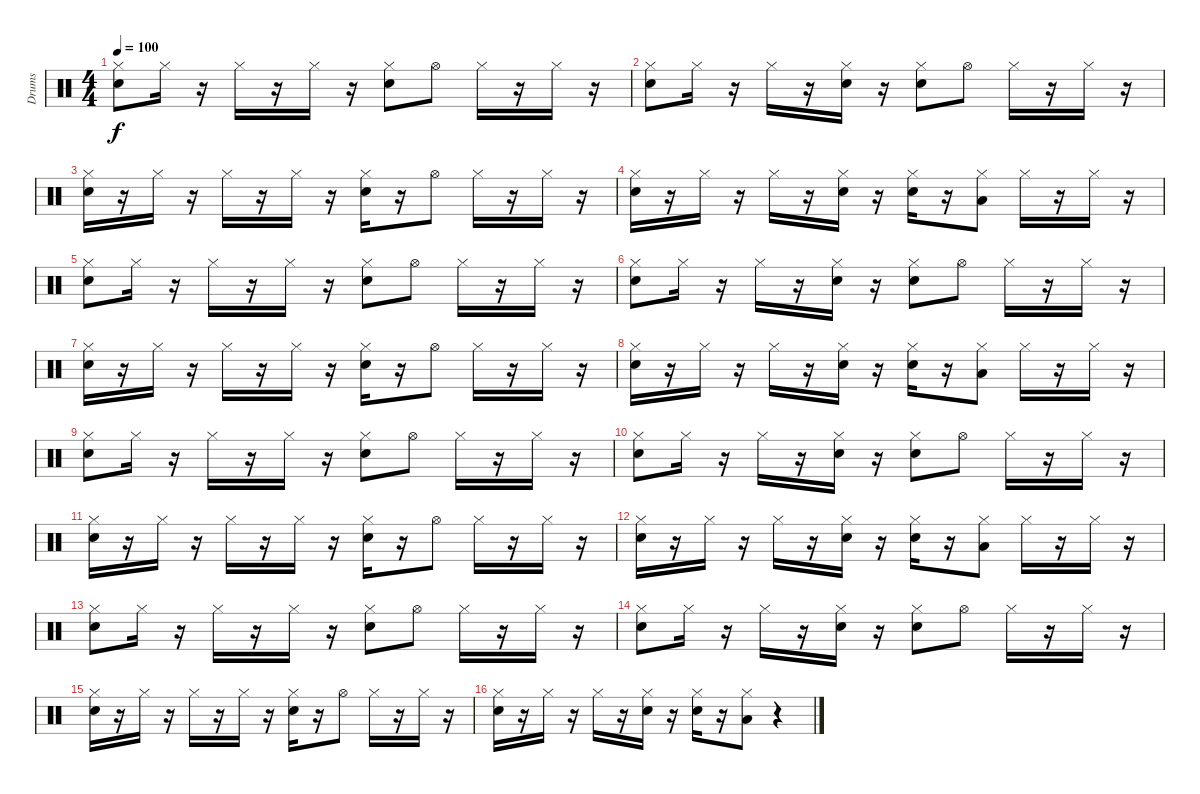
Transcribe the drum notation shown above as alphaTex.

\track ("Drums" "Drums") {instrument percussion}
\staff {score}
\articulation defaults
\ts (4 4)
\tempo 100
\clef neutral
\ks c
("Hi-Hat (closed)" "Snare (hit) 2").8{dy f} "Hi-Hat (closed)".16 r.16 "Hi-Hat (closed)".16 r.16 "Hi-Hat (closed)".16 r.16 ("Snare (hit) 2" "Hi-Hat (closed)").8 "Hi-Hat (open)".8 "Hi-Hat (closed)".16 r.16 "Hi-Hat (closed)".16 r.16 |
("Hi-Hat (closed)" "Snare (hit) 2").8 "Hi-Hat (closed)".16 r.16 "Hi-Hat (closed)".16 r.16 ("Hi-Hat (closed)" "Snare (hit) 2").16 r.16 ("Hi-Hat (closed)" "Snare (hit) 2").8 "Hi-Hat (open)".8 "Hi-Hat (closed)".16 r.16 "Hi-Hat (closed)".16 r.16 |
("Hi-Hat (closed)" "Snare (hit) 2").16 r.16 "Hi-Hat (closed)".16 r.16 "Hi-Hat (closed)".16 r.16 "Hi-Hat (closed)".16 r.16 ("Snare (hit) 2" "Hi-Hat (closed)").16 r.16 "Hi-Hat (open)".8 "Hi-Hat (closed)".16 r.16 "Hi-Hat (closed)".16 r.16 |
("Snare (hit) 2" "Hi-Hat (closed)").16 r.16 "Hi-Hat (closed)".16 r.16 "Hi-Hat (closed)".16 r.16 ("Hi-Hat (closed)" "Snare (hit) 2").16 r.16 ("Hi-Hat (closed)" "Snare (hit) 2").16 r.16 ("Low Tom (hit)" "Hi-Hat (closed)").8 "Hi-Hat (closed)".16 r.16 "Hi-Hat (closed)".16 r.16 |
("Hi-Hat (closed)" "Snare (hit) 2").8 "Hi-Hat (closed)".16 r.16 "Hi-Hat (closed)".16 r.16 "Hi-Hat (closed)".16 r.16 ("Snare (hit) 2" "Hi-Hat (closed)").8 "Hi-Hat (open)".8 "Hi-Hat (closed)".16 r.16 "Hi-Hat (closed)".16 r.16 |
("Hi-Hat (closed)" "Snare (hit) 2").8 "Hi-Hat (closed)".16 r.16 "Hi-Hat (closed)".16 r.16 ("Hi-Hat (closed)" "Snare (hit) 2").16 r.16 ("Hi-Hat (closed)" "Snare (hit) 2").8 "Hi-Hat (open)".8 "Hi-Hat (closed)".16 r.16 "Hi-Hat (closed)".16 r.16 |
("Hi-Hat (closed)" "Snare (hit) 2").16 r.16 "Hi-Hat (closed)".16 r.16 "Hi-Hat (closed)".16 r.16 "Hi-Hat (closed)".16 r.16 ("Snare (hit) 2" "Hi-Hat (closed)").16 r.16 "Hi-Hat (open)".8 "Hi-Hat (closed)".16 r.16 "Hi-Hat (closed)".16 r.16 |
("Snare (hit) 2" "Hi-Hat (closed)").16 r.16 "Hi-Hat (closed)".16 r.16 "Hi-Hat (closed)".16 r.16 ("Hi-Hat (closed)" "Snare (hit) 2").16 r.16 ("Hi-Hat (closed)" "Snare (hit) 2").16 r.16 ("Low Tom (hit)" "Hi-Hat (closed)").8 "Hi-Hat (closed)".16 r.16 "Hi-Hat (closed)".16 r.16 |
("Hi-Hat (closed)" "Snare (hit) 2").8 "Hi-Hat (closed)".16 r.16 "Hi-Hat (closed)".16 r.16 "Hi-Hat (closed)".16 r.16 ("Snare (hit) 2" "Hi-Hat (closed)").8 "Hi-Hat (open)".8 "Hi-Hat (closed)".16 r.16 "Hi-Hat (closed)".16 r.16 |
("Hi-Hat (closed)" "Snare (hit) 2").8 "Hi-Hat (closed)".16 r.16 "Hi-Hat (closed)".16 r.16 ("Hi-Hat (closed)" "Snare (hit) 2").16 r.16 ("Hi-Hat (closed)" "Snare (hit) 2").8 "Hi-Hat (open)".8 "Hi-Hat (closed)".16 r.16 "Hi-Hat (closed)".16 r.16 |
("Hi-Hat (closed)" "Snare (hit) 2").16 r.16 "Hi-Hat (closed)".16 r.16 "Hi-Hat (closed)".16 r.16 "Hi-Hat (closed)".16 r.16 ("Snare (hit) 2" "Hi-Hat (closed)").16 r.16 "Hi-Hat (open)".8 "Hi-Hat (closed)".16 r.16 "Hi-Hat (closed)".16 r.16 |
("Snare (hit) 2" "Hi-Hat (closed)").16 r.16 "Hi-Hat (closed)".16 r.16 "Hi-Hat (closed)".16 r.16 ("Hi-Hat (closed)" "Snare (hit) 2").16 r.16 ("Hi-Hat (closed)" "Snare (hit) 2").16 r.16 ("Low Tom (hit)" "Hi-Hat (closed)").8 "Hi-Hat (closed)".16 r.16 "Hi-Hat (closed)".16 r.16 |
("Hi-Hat (closed)" "Snare (hit) 2").8 "Hi-Hat (closed)".16 r.16 "Hi-Hat (closed)".16 r.16 "Hi-Hat (closed)".16 r.16 ("Snare (hit) 2" "Hi-Hat (closed)").8 "Hi-Hat (open)".8 "Hi-Hat (closed)".16 r.16 "Hi-Hat (closed)".16 r.16 |
("Hi-Hat (closed)" "Snare (hit) 2").8 "Hi-Hat (closed)".16 r.16 "Hi-Hat (closed)".16 r.16 ("Hi-Hat (closed)" "Snare (hit) 2").16 r.16 ("Hi-Hat (closed)" "Snare (hit) 2").8 "Hi-Hat (open)".8 "Hi-Hat (closed)".16 r.16 "Hi-Hat (closed)".16 r.16 |
("Hi-Hat (closed)" "Snare (hit) 2").16 r.16 "Hi-Hat (closed)".16 r.16 "Hi-Hat (closed)".16 r.16 "Hi-Hat (closed)".16 r.16 ("Snare (hit) 2" "Hi-Hat (closed)").16 r.16 "Hi-Hat (open)".8 "Hi-Hat (closed)".16 r.16 "Hi-Hat (closed)".16 r.16 |
("Snare (hit) 2" "Hi-Hat (closed)").16 r.16 "Hi-Hat (closed)".16 r.16 "Hi-Hat (closed)".16 r.16 ("Hi-Hat (closed)" "Snare (hit) 2").16 r.16 ("Hi-Hat (closed)" "Snare (hit) 2").16 r.16 ("Low Tom (hit)" "Hi-Hat (closed)").8 r.4
